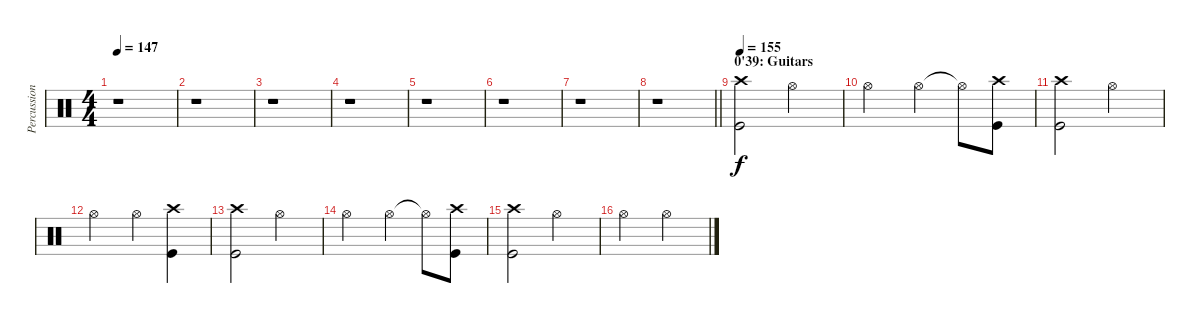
\track ("Percussions" "Percussion") {instrument percussion}
\staff {score}
\articulation defaults
\ts (4 4)
\tempo 147
\clef neutral
\ks c
r.1{dy f} |
r.1 |
r.1 |
r.1 |
r.1 |
r.1 |
r.1 |
\barLineRight lightlight
r.1 |
\section ("" "0'39: Guitars")
\tempo 155
("Crash high (hit)" "Kick (hit)").2 "Hi-Hat (open)".2 |
"Hi-Hat (open)".2 "Hi-Hat (open)".4 "Hi-Hat (open)"{t}.8 ("Crash high (hit)" "Kick (hit)").8 |
("Crash high (hit)" "Kick (hit)").2 "Hi-Hat (open)".2 |
"Hi-Hat (open)".2 "Hi-Hat (open)".4 ("Crash high (hit)" "Kick (hit)").4 |
("Crash high (hit)" "Kick (hit)").2 "Hi-Hat (open)".2 |
"Hi-Hat (open)".2 "Hi-Hat (open)".4 "Hi-Hat (open)"{t}.8 ("Crash high (hit)" "Kick (hit)").8 |
("Crash high (hit)" "Kick (hit)").2 "Hi-Hat (open)".2 |
"Hi-Hat (open)".2 "Hi-Hat (open)".2
